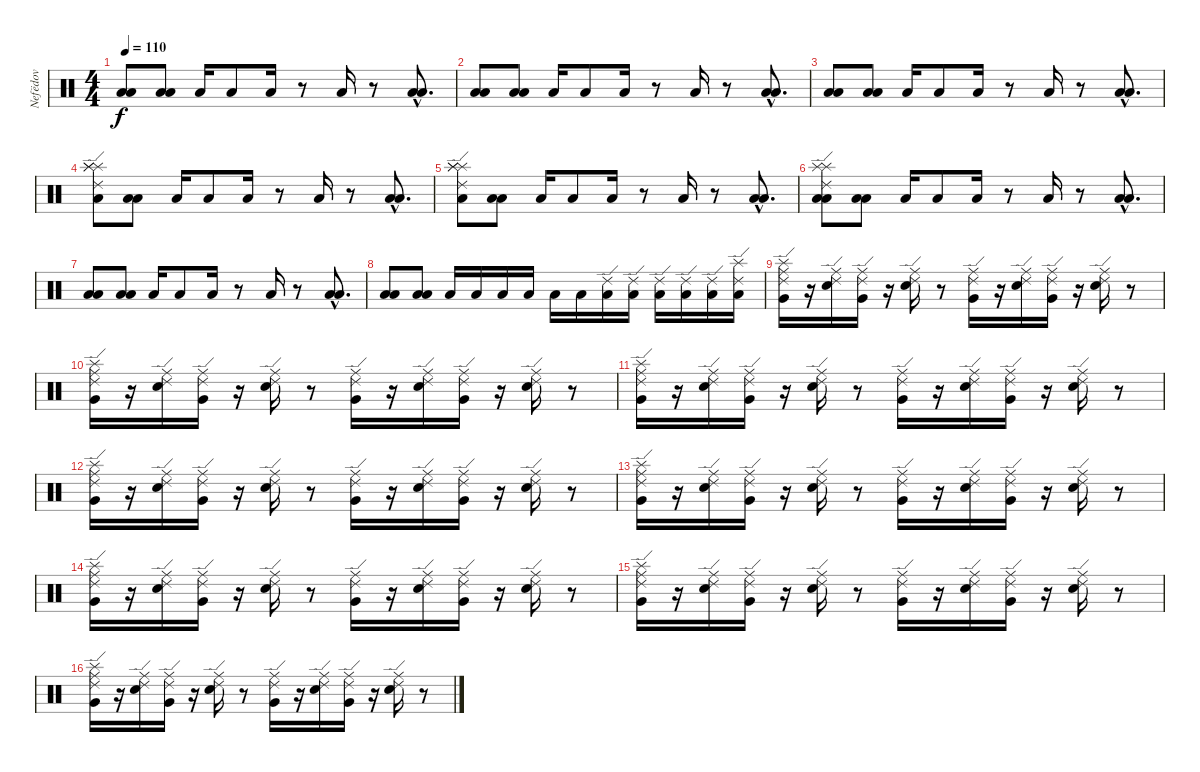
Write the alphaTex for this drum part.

\track ("Nefёdov" "Nefёdov") {instrument percussion}
\staff {score}
\articulation defaults
\ts (4 4)
\tempo 110
\clef neutral
\ks c
("Low Tom (hit)" "Low Floor Tom (hit)").8{dy f} ("Low Tom (hit)" "Low Floor Tom (hit)").8 "Low Floor Tom (hit)".16 "Low Floor Tom (hit)".8 "Low Floor Tom (hit)".16 r.8 "Low Floor Tom (hit)".16 r.8 ("Low Tom (hit)"{hac} "Low Floor Tom (hit)"{hac}).8{d} |
("Low Tom (hit)" "Low Floor Tom (hit)").8 ("Low Tom (hit)" "Low Floor Tom (hit)").8 "Low Floor Tom (hit)".16 "Low Floor Tom (hit)".8 "Low Floor Tom (hit)".16 r.8 "Low Floor Tom (hit)".16 r.8 ("Low Tom (hit)"{hac} "Low Floor Tom (hit)"{hac}).8{d} |
("Low Tom (hit)" "Low Floor Tom (hit)").8 ("Low Tom (hit)" "Low Floor Tom (hit)").8 "Low Floor Tom (hit)".16 "Low Floor Tom (hit)".8 "Low Floor Tom (hit)".16 r.8 "Low Floor Tom (hit)".16 r.8 ("Low Tom (hit)"{hac} "Low Floor Tom (hit)"{hac}).8{d} |
("Low Tom (hit)" "Splash (hit)" "Splash (hit)" "Ride (edge) 2" "Splash (hit)").8 ("Low Tom (hit)" "Low Floor Tom (hit)").8 "Low Floor Tom (hit)".16 "Low Floor Tom (hit)".8 "Low Floor Tom (hit)".16 r.8 "Low Floor Tom (hit)".16 r.8 ("Low Tom (hit)"{hac} "Low Floor Tom (hit)"{hac}).8{d} |
("Low Tom (hit)" "Splash (hit)" "Splash (hit)" "Ride (edge) 2" "Splash (hit)").8 ("Low Tom (hit)" "Low Floor Tom (hit)").8 "Low Floor Tom (hit)".16 "Low Floor Tom (hit)".8 "Low Floor Tom (hit)".16 r.8 "Low Floor Tom (hit)".16 r.8 ("Low Tom (hit)"{hac} "Low Floor Tom (hit)"{hac}).8{d} |
("Low Tom (hit)" "Low Floor Tom (hit)" "Splash (hit)" "Splash (hit)" "Ride (edge) 2").8 ("Low Tom (hit)" "Low Floor Tom (hit)").8 "Low Floor Tom (hit)".16 "Low Floor Tom (hit)".8 "Low Floor Tom (hit)".16 r.8 "Low Floor Tom (hit)".16 r.8 ("Low Tom (hit)"{hac} "Low Floor Tom (hit)"{hac}).8{d} |
("Low Tom (hit)" "Low Floor Tom (hit)").8 ("Low Tom (hit)" "Low Floor Tom (hit)").8 "Low Floor Tom (hit)".16 "Low Floor Tom (hit)".8 "Low Floor Tom (hit)".16 r.8 "Low Floor Tom (hit)".16 r.8 ("Low Tom (hit)"{hac} "Low Floor Tom (hit)"{hac}).8{d} |
("Low Tom (hit)" "Low Floor Tom (hit)").8 ("Low Tom (hit)" "Low Floor Tom (hit)").8 "Low Floor Tom (hit)".16 "Low Floor Tom (hit)".16 "Low Floor Tom (hit)".16 "Low Floor Tom (hit)".16 "Low Floor Tom (hit)".16 "Low Tom (hit)".16 ("Low Tom (hit)" "Ride (edge) 2").16 ("Low Tom (hit)" "Ride (edge) 2").16 ("Low Tom (hit)" "Ride (edge) 2").16 ("Low Tom (hit)" "Ride (edge) 2").16 ("Low Tom (hit)" "Ride (edge) 2").16 ("Low Tom (hit)" "Ride (edge) 2" "Splash (hit)").16 |
("Ride (middle)" "Ride (edge) 2" "Very Low Tom (hit)" "Splash (hit)").16 r.16 ("Ride (middle)" "Ride (edge) 2" "Electric Snare (hit)").16 ("Ride (middle)" "Ride (edge) 2" "Very Low Tom (hit)").16 r.16 ("Ride (middle)" "Ride (edge) 2" "Electric Snare (hit)").16 r.8 ("Ride (middle)" "Ride (edge) 2" "Very Low Tom (hit)").16 r.16 ("Ride (middle)" "Ride (edge) 2" "Electric Snare (hit)").16 ("Ride (middle)" "Ride (edge) 2" "Very Low Tom (hit)").16 r.16 ("Ride (middle)" "Ride (edge) 2" "Electric Snare (hit)").16 r.8 |
("Ride (middle)" "Ride (edge) 2" "Very Low Tom (hit)" "Splash (hit)").16 r.16 ("Ride (middle)" "Ride (edge) 2" "Electric Snare (hit)").16 ("Ride (middle)" "Ride (edge) 2" "Very Low Tom (hit)").16 r.16 ("Ride (middle)" "Ride (edge) 2" "Electric Snare (hit)").16 r.8 ("Ride (middle)" "Ride (edge) 2" "Very Low Tom (hit)").16 r.16 ("Ride (middle)" "Ride (edge) 2" "Electric Snare (hit)").16 ("Ride (middle)" "Ride (edge) 2" "Very Low Tom (hit)").16 r.16 ("Ride (middle)" "Ride (edge) 2" "Electric Snare (hit)").16 r.8 |
("Ride (middle)" "Ride (edge) 2" "Very Low Tom (hit)" "Splash (hit)").16 r.16 ("Ride (middle)" "Ride (edge) 2" "Electric Snare (hit)").16 ("Ride (middle)" "Ride (edge) 2" "Very Low Tom (hit)").16 r.16 ("Ride (middle)" "Ride (edge) 2" "Electric Snare (hit)").16 r.8 ("Ride (middle)" "Ride (edge) 2" "Very Low Tom (hit)").16 r.16 ("Ride (middle)" "Ride (edge) 2" "Electric Snare (hit)").16 ("Ride (middle)" "Ride (edge) 2" "Very Low Tom (hit)").16 r.16 ("Ride (middle)" "Ride (edge) 2" "Electric Snare (hit)").16 r.8 |
("Ride (middle)" "Ride (edge) 2" "Very Low Tom (hit)" "Splash (hit)").16 r.16 ("Ride (middle)" "Ride (edge) 2" "Electric Snare (hit)").16 ("Ride (middle)" "Ride (edge) 2" "Very Low Tom (hit)").16 r.16 ("Ride (middle)" "Ride (edge) 2" "Electric Snare (hit)").16 r.8 ("Ride (middle)" "Ride (edge) 2" "Very Low Tom (hit)").16 r.16 ("Ride (middle)" "Ride (edge) 2" "Electric Snare (hit)").16 ("Ride (middle)" "Ride (edge) 2" "Very Low Tom (hit)").16 r.16 ("Ride (middle)" "Ride (edge) 2" "Electric Snare (hit)").16 r.8 |
("Ride (middle)" "Ride (edge) 2" "Very Low Tom (hit)" "Splash (hit)").16 r.16 ("Ride (middle)" "Ride (edge) 2" "Electric Snare (hit)").16 ("Ride (middle)" "Ride (edge) 2" "Very Low Tom (hit)").16 r.16 ("Ride (middle)" "Ride (edge) 2" "Electric Snare (hit)").16 r.8 ("Ride (middle)" "Ride (edge) 2" "Very Low Tom (hit)").16 r.16 ("Ride (middle)" "Ride (edge) 2" "Electric Snare (hit)").16 ("Ride (middle)" "Ride (edge) 2" "Very Low Tom (hit)").16 r.16 ("Ride (middle)" "Ride (edge) 2" "Electric Snare (hit)").16 r.8 |
("Ride (middle)" "Ride (edge) 2" "Very Low Tom (hit)" "Splash (hit)").16 r.16 ("Ride (middle)" "Ride (edge) 2" "Electric Snare (hit)").16 ("Ride (middle)" "Ride (edge) 2" "Very Low Tom (hit)").16 r.16 ("Ride (middle)" "Ride (edge) 2" "Electric Snare (hit)").16 r.8 ("Ride (middle)" "Ride (edge) 2" "Very Low Tom (hit)").16 r.16 ("Ride (middle)" "Ride (edge) 2" "Electric Snare (hit)").16 ("Ride (middle)" "Ride (edge) 2" "Very Low Tom (hit)").16 r.16 ("Ride (middle)" "Ride (edge) 2" "Electric Snare (hit)").16 r.8 |
("Ride (middle)" "Ride (edge) 2" "Very Low Tom (hit)" "Splash (hit)").16 r.16 ("Ride (middle)" "Ride (edge) 2" "Electric Snare (hit)").16 ("Ride (middle)" "Ride (edge) 2" "Very Low Tom (hit)").16 r.16 ("Ride (middle)" "Ride (edge) 2" "Electric Snare (hit)").16 r.8 ("Ride (middle)" "Ride (edge) 2" "Very Low Tom (hit)").16 r.16 ("Ride (middle)" "Ride (edge) 2" "Electric Snare (hit)").16 ("Ride (middle)" "Ride (edge) 2" "Very Low Tom (hit)").16 r.16 ("Ride (middle)" "Ride (edge) 2" "Electric Snare (hit)").16 r.8 |
("Ride (middle)" "Ride (edge) 2" "Very Low Tom (hit)" "Splash (hit)").16 r.16 ("Ride (middle)" "Ride (edge) 2" "Electric Snare (hit)").16 ("Ride (middle)" "Ride (edge) 2" "Very Low Tom (hit)").16 r.16 ("Ride (middle)" "Ride (edge) 2" "Electric Snare (hit)").16 r.8 ("Ride (middle)" "Ride (edge) 2" "Very Low Tom (hit)").16 r.16 ("Ride (middle)" "Ride (edge) 2" "Electric Snare (hit)").16 ("Ride (middle)" "Ride (edge) 2" "Very Low Tom (hit)").16 r.16 ("Ride (middle)" "Ride (edge) 2" "Electric Snare (hit)").16 r.8
